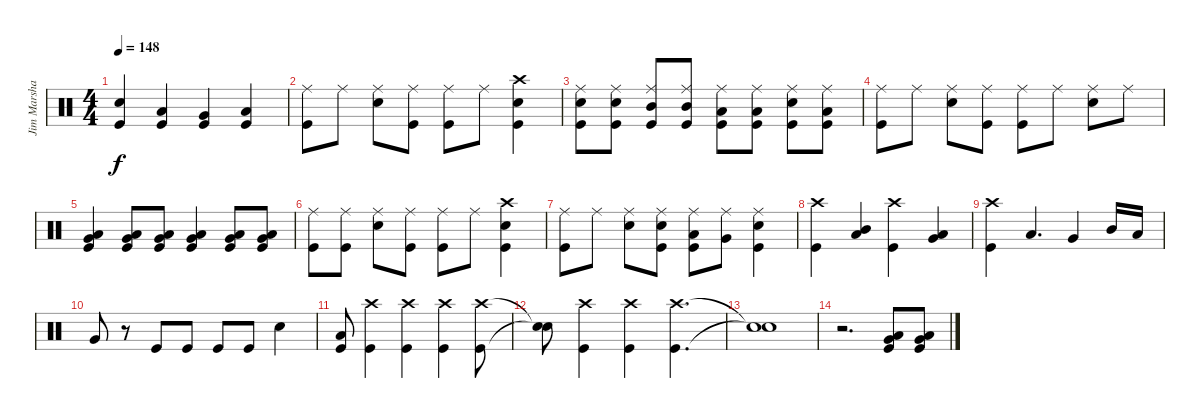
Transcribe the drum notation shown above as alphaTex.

\track ("Jim Marshall Drums" "Jim Marsha") {instrument percussion}
\staff {score}
\articulation defaults
\ts (4 4)
\tempo 148
\clef neutral
\ks c
("Snare (hit) 2" "Kick (hit)").4{dy f} ("Low Tom (hit)" "Kick (hit)").4 ("Very Low Tom (hit)" "Kick (hit)").4 ("Low Floor Tom (hit)" "Kick (hit)").4 |
("Ride (middle)" "Kick (hit)").8 "Ride (middle)".8 ("Ride (middle)" "Snare (hit) 2").8 ("Ride (middle)" "Kick (hit)").8 ("Ride (middle)" "Kick (hit)").8 "Ride (middle)".8 ("Crash high (hit)" "Snare (hit) 2" "Kick (hit)").4 |
("Ride (middle)" "Snare (hit) 2" "Kick (hit)").8 ("Ride (middle)" "Snare (hit) 2" "Kick (hit)").8 ("Ride (middle)" "Mid Tom (hit)" "Kick (hit)").8 ("Ride (middle)" "Mid Tom (hit)" "Kick (hit)").8 ("Ride (middle)" "Low Tom (hit)" "Kick (hit)").8 ("Ride (middle)" "Low Tom (hit)" "Kick (hit)").8 ("Ride (middle)" "Snare (hit) 2" "Kick (hit)").8 ("Ride (middle)" "Low Tom (hit)" "Kick (hit)").8 |
("Ride (middle)" "Kick (hit)").8 "Ride (middle)".8 ("Ride (middle)" "Snare (hit) 2").8 ("Ride (middle)" "Kick (hit)").8 ("Ride (middle)" "Kick (hit)").8 "Ride (middle)".8 ("Ride (middle)" "Snare (hit) 2").8 "Ride (middle)".8 |
("Very Low Tom (hit)" "Low Floor Tom (hit)" "Kick (hit)").4 ("Very Low Tom (hit)" "Low Floor Tom (hit)" "Kick (hit)").8 ("Very Low Tom (hit)" "Low Floor Tom (hit)" "Kick (hit)").8 ("Very Low Tom (hit)" "Low Floor Tom (hit)" "Kick (hit)").4 ("Very Low Tom (hit)" "Low Floor Tom (hit)" "Kick (hit)").8 ("Very Low Tom (hit)" "Low Floor Tom (hit)" "Kick (hit)").8 |
("Ride (middle)" "Kick (hit)").8 ("Ride (middle)" "Kick (hit)").8 ("Ride (middle)" "Snare (hit) 2").8 ("Ride (middle)" "Kick (hit)").8 ("Ride (middle)" "Kick (hit)").8 "Ride (middle)".8 ("Crash high (hit)" "Snare (hit) 2" "Kick (hit)").4 |
("Ride (middle)" "Kick (hit)").8 "Ride (middle)".8 ("Ride (middle)" "Snare (hit) 2").8 ("Ride (middle)" "Snare (hit) 2" "Kick (hit)").8 ("Ride (middle)" "Low Tom (hit)" "Kick (hit)").8 ("Ride (middle)" "Very Low Tom (hit)").8 ("Ride (middle)" "Snare (hit) 2" "Kick (hit)").4 |
("Crash high (hit)" "Kick (hit)").4 ("Mid Tom (hit)" "Low Tom (hit)").4 ("Crash high (hit)" "Kick (hit)").4 ("Low Tom (hit)" "Very Low Tom (hit)").4 |
("Crash high (hit)" "Kick (hit)").4 "Low Tom (hit)".4{d} "Very Low Tom (hit)".4 "Mid Tom (hit)".16 "Low Tom (hit)".16 |
"Very Low Tom (hit)".8 r.8 "Kick (hit)".8 "Kick (hit)".8 "Kick (hit)".8 "Kick (hit)".8 "Snare (hit) 2".4 |
("Low Tom (hit)" "Kick (hit)").8 ("Crash high (hit)" "Kick (hit)").4 ("Crash high (hit)" "Kick (hit)").4 ("Crash high (hit)" "Kick (hit)").4 ("Crash high (hit)" "Kick (hit)").8 |
("Snare (hit)"{t} "Snare (hit)"{t}).8 ("Crash high (hit)" "Kick (hit)").4 ("Crash high (hit)" "Kick (hit)").4 ("Crash high (hit)" "Kick (hit)").4{d} |
("Snare (hit)"{t} "Snare (hit)"{t}).1 |
r.2{d} ("Very Low Tom (hit)" "Low Floor Tom (hit)" "Kick (hit)").8 ("Very Low Tom (hit)" "Low Floor Tom (hit)" "Kick (hit)").8
